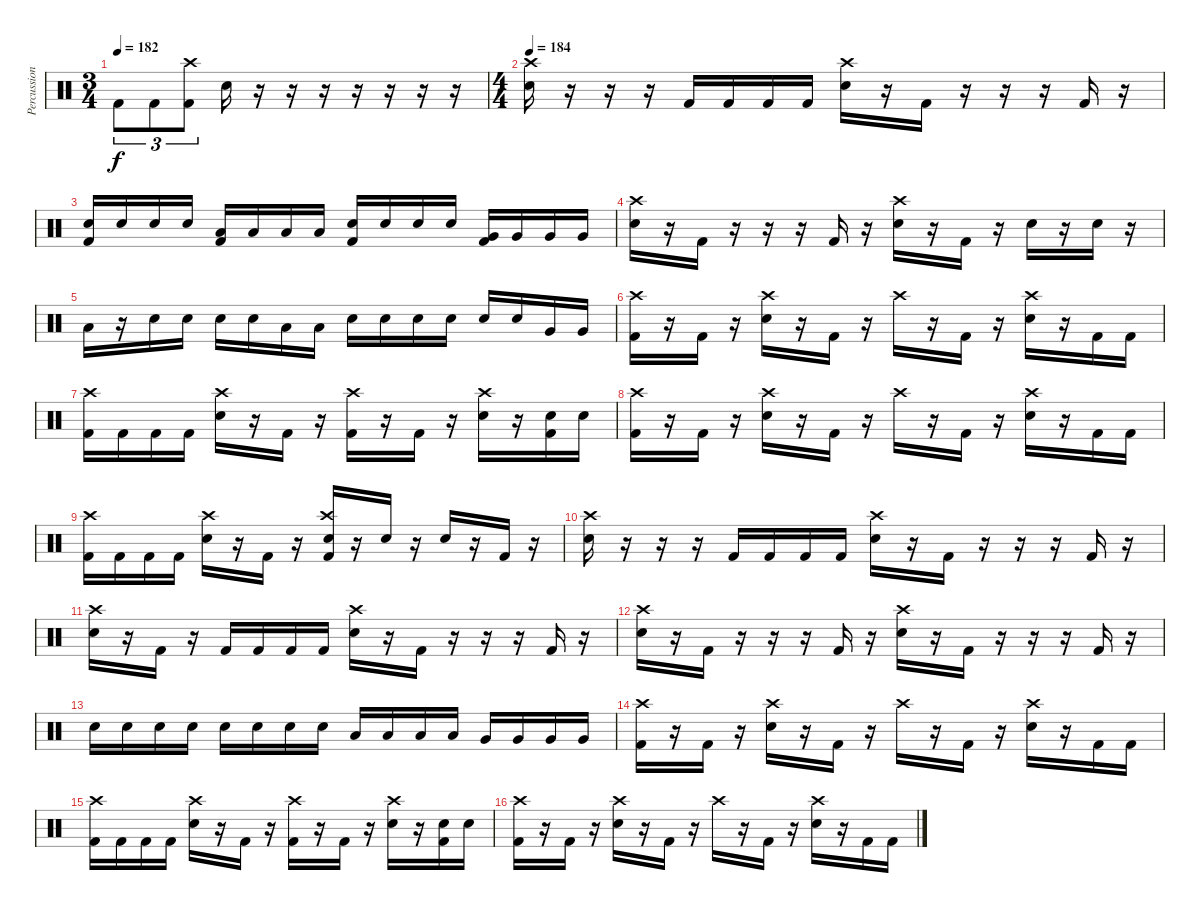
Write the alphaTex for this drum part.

\track ("Percussion" "Percussion") {instrument percussion}
\staff {score}
\articulation defaults
\ts (3 4)
\tempo 182
\clef neutral
\ks c "Kick (hit) 2".8{tu (3 2) dy f} "Kick (hit) 2".8{tu (3 2)}
("Crash high (hit)" "Kick (hit) 2").8{tu (3 2)} "Electric Snare (hit)".16 r.16 r.16 r.16 r.16 r.16 r.16 r.16 |
\ts (4 4)
\tempo 184
("Crash high (hit)" "Electric Snare (hit)").16 r.16 r.16 r.16 "Kick (hit) 2".16 "Kick (hit) 2".16 "Kick (hit) 2".16 "Kick (hit) 2".16 ("Crash high (hit)" "Electric Snare (hit)").16 r.16 "Kick (hit) 2".16 r.16 r.16 r.16 "Kick (hit) 2".16 r.16 |
("Electric Snare (hit)" "Kick (hit) 2").16 "Electric Snare (hit)".16 "Electric Snare (hit)".16 "Electric Snare (hit)".16 ("Low Tom (hit)" "Kick (hit) 2").16 "Low Tom (hit)".16 "Low Tom (hit)".16 "Low Tom (hit)".16 ("Electric Snare (hit)" "Kick (hit) 2").16 "Electric Snare (hit)".16 "Electric Snare (hit)".16 "Electric Snare (hit)".16 ("Very Low Tom (hit)" "Kick (hit) 2").16 "Very Low Tom (hit)".16 "Very Low Tom (hit)".16 "Very Low Tom (hit)".16 |
("Crash high (hit)" "Electric Snare (hit)").16 r.16 "Kick (hit) 2".16 r.16 r.16 r.16 "Kick (hit) 2".16 r.16 ("Crash high (hit)" "Electric Snare (hit)").16 r.16 "Kick (hit) 2".16 r.16 "Electric Snare (hit)".16 r.16 "Electric Snare (hit)".16 r.16 |
"Low Tom (hit)".16 r.16 "Electric Snare (hit)".16 "Electric Snare (hit)".16 "Electric Snare (hit)".16 "Electric Snare (hit)".16 "Low Tom (hit)".16 "Low Tom (hit)".16 "Electric Snare (hit)".16 "Electric Snare (hit)".16 "Electric Snare (hit)".16 "Electric Snare (hit)".16 "Electric Snare (hit)".16 "Electric Snare (hit)".16 "Very Low Tom (hit)".16 "Very Low Tom (hit)".16 |
("Crash high (hit)" "Kick (hit) 2").16 r.16 "Kick (hit) 2".16 r.16 ("Crash high (hit)" "Electric Snare (hit)").16 r.16 "Kick (hit) 2".16 r.16 "Crash high (hit)".16 r.16 "Kick (hit) 2".16 r.16 ("Crash high (hit)" "Electric Snare (hit)").16 r.16 "Kick (hit) 2".16 "Kick (hit) 2".16 |
("Crash high (hit)" "Kick (hit) 2").16 "Kick (hit) 2".16 "Kick (hit) 2".16 "Kick (hit) 2".16 ("Crash high (hit)" "Electric Snare (hit)").16 r.16 "Kick (hit) 2".16 r.16 ("Crash high (hit)" "Kick (hit) 2").16 r.16 "Kick (hit) 2".16 r.16 ("Crash high (hit)" "Electric Snare (hit)").16 r.16 ("Electric Snare (hit)" "Kick (hit) 2").16 "Electric Snare (hit)".16 |
("Crash high (hit)" "Kick (hit) 2").16 r.16 "Kick (hit) 2".16 r.16 ("Crash high (hit)" "Electric Snare (hit)").16 r.16 "Kick (hit) 2".16 r.16 "Crash high (hit)".16 r.16 "Kick (hit) 2".16 r.16 ("Crash high (hit)" "Electric Snare (hit)").16 r.16 "Kick (hit) 2".16 "Kick (hit) 2".16 |
("Crash high (hit)" "Kick (hit) 2").16 "Kick (hit) 2".16 "Kick (hit) 2".16 "Kick (hit) 2".16 ("Crash high (hit)" "Electric Snare (hit)").16 r.16 "Kick (hit) 2".16 r.16 ("Crash high (hit)" "Electric Snare (hit)" "Kick (hit) 2").16 r.16 "Electric Snare (hit)".16 r.16 "Electric Snare (hit)".16 r.16 "Kick (hit) 2".16 r.16 |
("Crash high (hit)" "Electric Snare (hit)").16 r.16 r.16 r.16 "Kick (hit) 2".16 "Kick (hit) 2".16 "Kick (hit) 2".16 "Kick (hit) 2".16 ("Crash high (hit)" "Electric Snare (hit)").16 r.16 "Kick (hit) 2".16 r.16 r.16 r.16 "Kick (hit) 2".16 r.16 |
("Crash high (hit)" "Electric Snare (hit)").16 r.16 "Kick (hit) 2".16 r.16 "Kick (hit) 2".16 "Kick (hit) 2".16 "Kick (hit) 2".16 "Kick (hit) 2".16 ("Crash high (hit)" "Electric Snare (hit)").16 r.16 "Kick (hit) 2".16 r.16 r.16 r.16 "Kick (hit) 2".16 r.16 |
("Crash high (hit)" "Electric Snare (hit)").16 r.16 "Kick (hit) 2".16 r.16 r.16 r.16 "Kick (hit) 2".16 r.16 ("Crash high (hit)" "Electric Snare (hit)").16 r.16 "Kick (hit) 2".16 r.16 r.16 r.16 "Kick (hit) 2".16 r.16 |
"Electric Snare (hit)".16 "Electric Snare (hit)".16 "Electric Snare (hit)".16 "Electric Snare (hit)".16 "Electric Snare (hit)".16 "Electric Snare (hit)".16 "Electric Snare (hit)".16 "Electric Snare (hit)".16 "Low Tom (hit)".16 "Low Tom (hit)".16 "Low Tom (hit)".16 "Low Tom (hit)".16 "Very Low Tom (hit)".16 "Very Low Tom (hit)".16 "Very Low Tom (hit)".16 "Very Low Tom (hit)".16 |
("Crash high (hit)" "Kick (hit) 2").16 r.16 "Kick (hit) 2".16 r.16 ("Crash high (hit)" "Electric Snare (hit)").16 r.16 "Kick (hit) 2".16 r.16 "Crash high (hit)".16 r.16 "Kick (hit) 2".16 r.16 ("Crash high (hit)" "Electric Snare (hit)").16 r.16 "Kick (hit) 2".16 "Kick (hit) 2".16 |
("Crash high (hit)" "Kick (hit) 2").16 "Kick (hit) 2".16 "Kick (hit) 2".16 "Kick (hit) 2".16 ("Crash high (hit)" "Electric Snare (hit)").16 r.16 "Kick (hit) 2".16 r.16 ("Crash high (hit)" "Kick (hit) 2").16 r.16 "Kick (hit) 2".16 r.16 ("Crash high (hit)" "Electric Snare (hit)").16 r.16 ("Electric Snare (hit)" "Kick (hit) 2").16 "Electric Snare (hit)".16 |
("Crash high (hit)" "Kick (hit) 2").16 r.16 "Kick (hit) 2".16 r.16 ("Crash high (hit)" "Electric Snare (hit)").16 r.16 "Kick (hit) 2".16 r.16 "Crash high (hit)".16 r.16 "Kick (hit) 2".16 r.16 ("Crash high (hit)" "Electric Snare (hit)").16 r.16 "Kick (hit) 2".16 "Kick (hit) 2".16
